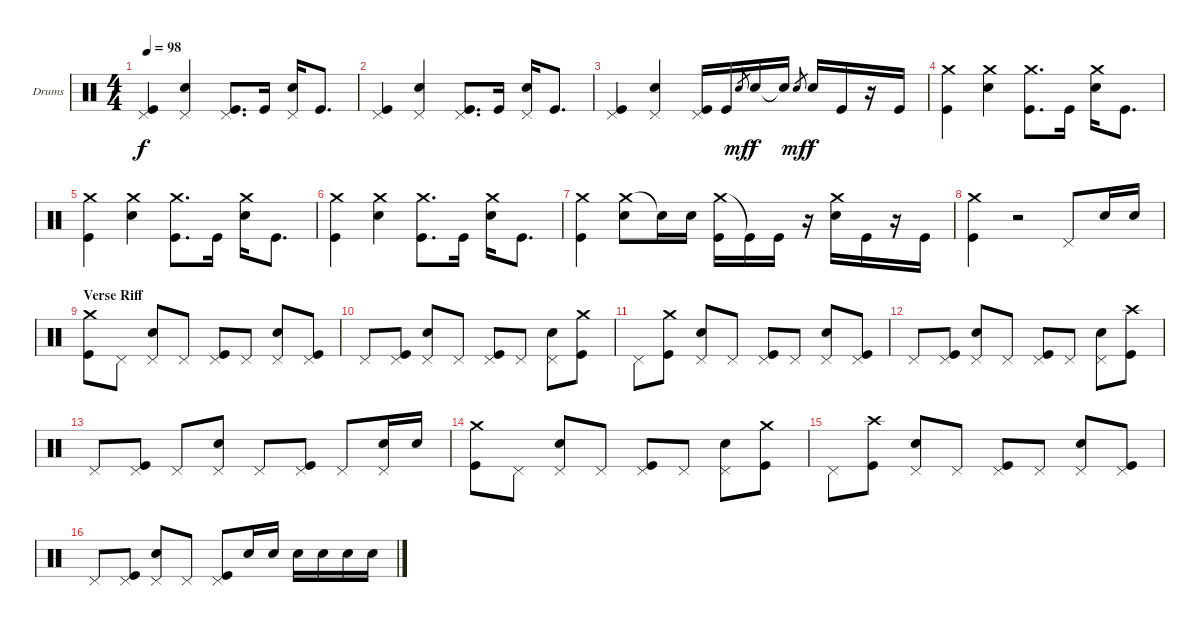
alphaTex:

\bracketExtendMode groupsimilarinstruments
\firstSystemTrackNameOrientation horizontal
\otherSystemsTrackNameOrientation horizontal
\track ("Drumkit" "Drums") {instrument percussion}
\staff {score}
\articulation defaults
\ts (4 4)
\tempo 98
\clef neutral
\ks c
("Pedal Hi-Hat (hit)" "Kick (hit)").4{dy f} ("Pedal Hi-Hat (hit)" "Snare (hit) 2").4 ("Pedal Hi-Hat (hit)" "Kick (hit)").8{d} "Kick (hit)".16 ("Pedal Hi-Hat (hit)" "Snare (hit) 2").16 "Kick (hit)".8{d} |
("Pedal Hi-Hat (hit)" "Kick (hit)").4 ("Pedal Hi-Hat (hit)" "Snare (hit) 2").4 ("Pedal Hi-Hat (hit)" "Kick (hit)").8{d} "Kick (hit)".16 ("Pedal Hi-Hat (hit)" "Snare (hit) 2").16 "Kick (hit)".8{d} |
("Pedal Hi-Hat (hit)" "Kick (hit)").4 ("Pedal Hi-Hat (hit)" "Snare (hit) 2").4 ("Pedal Hi-Hat (hit)" "Kick (hit)").16 "Kick (hit)".16 "Snare (hit) 2".8{gr dy mf} "Snare (hit) 2".16{dy f} "Snare (hit) 2"{t}.16 "Snare (hit) 2".8{gr dy mf} "Snare (hit) 2".16{dy f} "Kick (hit)".16 r.16 "Kick (hit)".16 |
("Crash medium (hit)" "Kick (hit)").4 ("Crash medium (hit)" "Snare (hit) 2").4 ("Crash medium (hit)" "Kick (hit)").8{d} "Kick (hit)".16 ("Crash medium (hit)" "Snare (hit) 2").16 "Kick (hit)".8{d} |
("Crash medium (hit)" "Kick (hit)").4 ("Crash medium (hit)" "Snare (hit) 2").4 ("Crash medium (hit)" "Kick (hit)").8{d} "Kick (hit)".16 ("Crash medium (hit)" "Snare (hit) 2").16 "Kick (hit)".8{d} |
("Crash medium (hit)" "Kick (hit)").4 ("Crash medium (hit)" "Snare (hit) 2").4 ("Crash medium (hit)" "Kick (hit)").8{d} "Kick (hit)".16 ("Crash medium (hit)" "Snare (hit) 2").16 "Kick (hit)".8{d} |
("Crash medium (hit)" "Kick (hit)").4 ("Crash medium (hit)" "Snare (hit) 2").8 "Snare (hit) 2"{t}.16 "Snare (hit) 2".16 ("Crash medium (hit)" "Kick (hit)").16 "Kick (hit)"{t}.16 "Kick (hit)".16 r.16 ("Crash medium (hit)" "Snare (hit) 2").16 "Kick (hit)".16 r.16 "Kick (hit)".16 |
("Crash medium (hit)" "Kick (hit)").4 r.2 "Pedal Hi-Hat (hit)".8 "Snare (hit) 2".16 "Snare (hit) 2".16 |
\section ("" "Verse Riff")
("Crash medium (hit)" "Kick (hit)").8 "Pedal Hi-Hat (hit)".8 ("Pedal Hi-Hat (hit)" "Snare (hit) 2").8 "Pedal Hi-Hat (hit)".8 ("Pedal Hi-Hat (hit)" "Kick (hit)").8 "Pedal Hi-Hat (hit)".8 ("Pedal Hi-Hat (hit)" "Snare (hit) 2").8 ("Pedal Hi-Hat (hit)" "Kick (hit)").8 |
"Pedal Hi-Hat (hit)".8 ("Pedal Hi-Hat (hit)" "Kick (hit)").8 ("Pedal Hi-Hat (hit)" "Snare (hit) 2").8 "Pedal Hi-Hat (hit)".8 ("Pedal Hi-Hat (hit)" "Kick (hit)").8 "Pedal Hi-Hat (hit)".8 ("Pedal Hi-Hat (hit)" "Snare (hit) 2").8 ("Crash medium (hit)" "Kick (hit)").8 |
"Pedal Hi-Hat (hit)".8 ("Crash medium (hit)" "Kick (hit)").8 ("Pedal Hi-Hat (hit)" "Snare (hit) 2").8 "Pedal Hi-Hat (hit)".8 ("Pedal Hi-Hat (hit)" "Kick (hit)").8 "Pedal Hi-Hat (hit)".8 ("Pedal Hi-Hat (hit)" "Snare (hit) 2").8 ("Pedal Hi-Hat (hit)" "Kick (hit)").8 |
"Pedal Hi-Hat (hit)".8 ("Pedal Hi-Hat (hit)" "Kick (hit)").8 ("Pedal Hi-Hat (hit)" "Snare (hit) 2").8 "Pedal Hi-Hat (hit)".8 ("Pedal Hi-Hat (hit)" "Kick (hit)").8 "Pedal Hi-Hat (hit)".8 ("Pedal Hi-Hat (hit)" "Snare (hit) 2").8 ("Crash high (hit)" "Kick (hit)").8 |
"Pedal Hi-Hat (hit)".8 ("Pedal Hi-Hat (hit)" "Kick (hit)").8 "Pedal Hi-Hat (hit)".8 ("Pedal Hi-Hat (hit)" "Snare (hit) 2").8 "Pedal Hi-Hat (hit)".8 ("Pedal Hi-Hat (hit)" "Kick (hit)").8 "Pedal Hi-Hat (hit)".8 ("Pedal Hi-Hat (hit)" "Snare (hit) 2").16 "Snare (hit) 2".16 |
("Crash medium (hit)" "Kick (hit)").8 "Pedal Hi-Hat (hit)".8 ("Pedal Hi-Hat (hit)" "Snare (hit) 2").8 "Pedal Hi-Hat (hit)".8 ("Pedal Hi-Hat (hit)" "Kick (hit)").8 "Pedal Hi-Hat (hit)".8 ("Pedal Hi-Hat (hit)" "Snare (hit) 2").8 ("Crash medium (hit)" "Kick (hit)").8 |
"Pedal Hi-Hat (hit)".8 ("Crash high (hit)" "Kick (hit)").8 ("Pedal Hi-Hat (hit)" "Snare (hit) 2").8 "Pedal Hi-Hat (hit)".8 ("Pedal Hi-Hat (hit)" "Kick (hit)").8 "Pedal Hi-Hat (hit)".8 ("Pedal Hi-Hat (hit)" "Snare (hit) 2").8 ("Pedal Hi-Hat (hit)" "Kick (hit)").8 |
"Pedal Hi-Hat (hit)".8 ("Pedal Hi-Hat (hit)" "Kick (hit)").8 ("Pedal Hi-Hat (hit)" "Snare (hit) 2").8 "Pedal Hi-Hat (hit)".8 ("Pedal Hi-Hat (hit)" "Kick (hit)").8 "Snare (hit) 2".16 "Snare (hit) 2".16 "Snare (hit) 2".16 "Snare (hit) 2".16 "Snare (hit) 2".16 "Snare (hit) 2".16
